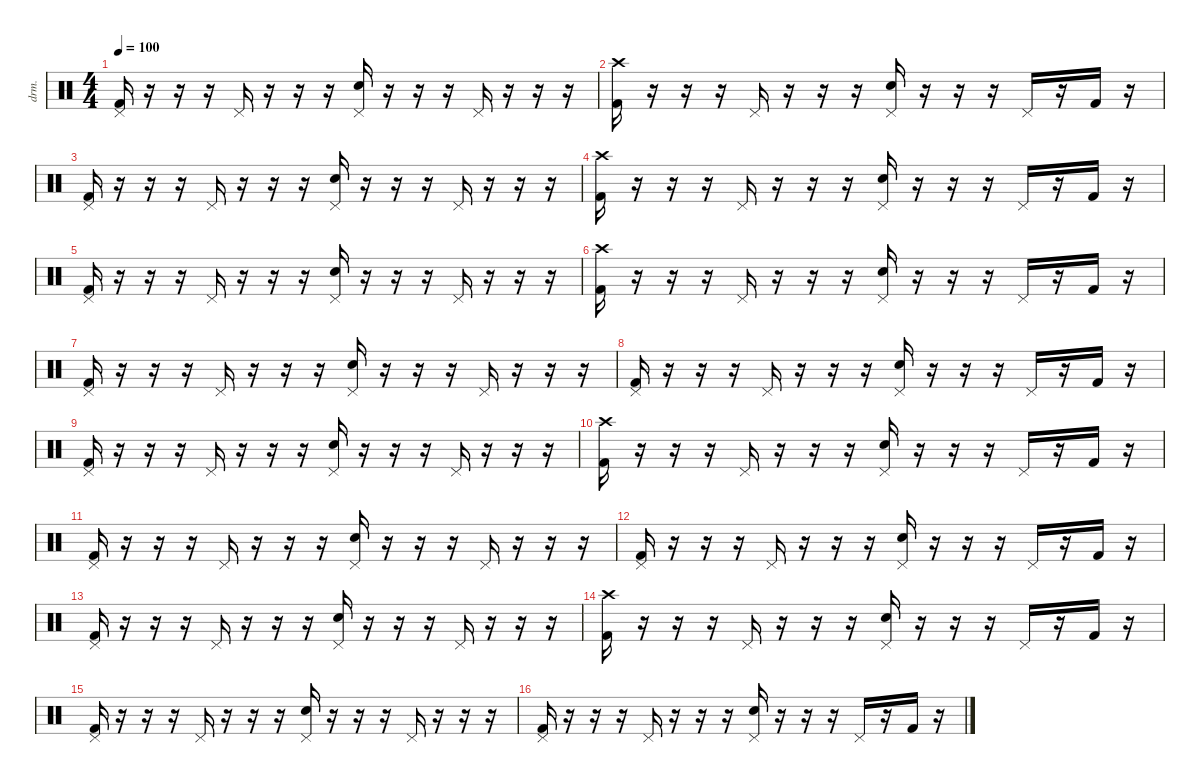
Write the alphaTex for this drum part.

\defaultSystemsLayout 4
\hideDynamics
\bracketExtendMode nobrackets
\otherSystemsTrackNameOrientation horizontal
\track ("Drums" "drm.") {instrument percussion}
\staff {score}
\articulation defaults
\ts (4 4)
\tempo 100
\clef neutral
\ks c
("Kick (hit) 2" "Pedal Hi-Hat (hit)").16{dy ff beam Up} r.16{beam Up} r.16{beam Up} r.16{beam Up} "Pedal Hi-Hat (hit)".16{beam Up} r.16{beam Up} r.16{beam Up} r.16{beam Up} ("Snare (hit) 2" "Pedal Hi-Hat (hit)").16{beam Up} r.16{beam Up} r.16{beam Up} r.16{beam Up} "Pedal Hi-Hat (hit)".16{beam Up} r.16{beam Up} r.16{beam Up} r.16{beam Up} |
("Kick (hit) 2" "Crash high (hit)").16{beam Down} r.16{beam Down} r.16{beam Down} r.16{beam Down} "Pedal Hi-Hat (hit)".16{beam Up} r.16{beam Up} r.16{beam Up} r.16{beam Up} ("Snare (hit) 2" "Pedal Hi-Hat (hit)").16{beam Up} r.16{beam Up} r.16{beam Up} r.16{beam Up} "Pedal Hi-Hat (hit)".16{beam Up} r.16{beam Up} "Kick (hit) 2".16{dy f beam Up} r.16{beam Up} |
("Kick (hit) 2" "Pedal Hi-Hat (hit)").16{dy ff beam Up} r.16{beam Up} r.16{beam Up} r.16{beam Up} "Pedal Hi-Hat (hit)".16{beam Up} r.16{beam Up} r.16{beam Up} r.16{beam Up} ("Snare (hit) 2" "Pedal Hi-Hat (hit)").16{beam Up} r.16{beam Up} r.16{beam Up} r.16{beam Up} "Pedal Hi-Hat (hit)".16{beam Up} r.16{beam Up} r.16{beam Up} r.16{beam Up} |
("Kick (hit) 2" "Crash high (hit)").16{beam Down} r.16{beam Down} r.16{beam Down} r.16{beam Down} "Pedal Hi-Hat (hit)".16{beam Up} r.16{beam Up} r.16{beam Up} r.16{beam Up} ("Snare (hit) 2" "Pedal Hi-Hat (hit)").16{beam Up} r.16{beam Up} r.16{beam Up} r.16{beam Up} "Pedal Hi-Hat (hit)".16{beam Up} r.16{beam Up} "Kick (hit) 2".16{dy f beam Up} r.16{beam Up} |
("Kick (hit) 2" "Pedal Hi-Hat (hit)").16{dy ff beam Up} r.16{beam Up} r.16{beam Up} r.16{beam Up} "Pedal Hi-Hat (hit)".16{beam Up} r.16{beam Up} r.16{beam Up} r.16{beam Up} ("Snare (hit) 2" "Pedal Hi-Hat (hit)").16{beam Up} r.16{beam Up} r.16{beam Up} r.16{beam Up} "Pedal Hi-Hat (hit)".16{beam Up} r.16{beam Up} r.16{beam Up} r.16{beam Up} |
("Kick (hit) 2" "Crash high (hit)").16{beam Down} r.16{beam Down} r.16{beam Down} r.16{beam Down} "Pedal Hi-Hat (hit)".16{beam Up} r.16{beam Up} r.16{beam Up} r.16{beam Up} ("Snare (hit) 2" "Pedal Hi-Hat (hit)").16{beam Up} r.16{beam Up} r.16{beam Up} r.16{beam Up} "Pedal Hi-Hat (hit)".16{beam Up} r.16{beam Up} "Kick (hit) 2".16{dy f beam Up} r.16{beam Up} |
("Kick (hit) 2" "Pedal Hi-Hat (hit)").16{dy ff beam Up} r.16{beam Up} r.16{beam Up} r.16{beam Up} "Pedal Hi-Hat (hit)".16{beam Up} r.16{beam Up} r.16{beam Up} r.16{beam Up} ("Snare (hit) 2" "Pedal Hi-Hat (hit)").16{beam Up} r.16{beam Up} r.16{beam Up} r.16{beam Up} "Pedal Hi-Hat (hit)".16{beam Up} r.16{beam Up} r.16{beam Up} r.16{beam Up} |
("Kick (hit) 2" "Pedal Hi-Hat (hit)").16{beam Up} r.16{beam Up} r.16{beam Up} r.16{beam Up} "Pedal Hi-Hat (hit)".16{beam Up} r.16{beam Up} r.16{beam Up} r.16{beam Up} ("Snare (hit) 2" "Pedal Hi-Hat (hit)").16{beam Up} r.16{beam Up} r.16{beam Up} r.16{beam Up} "Pedal Hi-Hat (hit)".16{beam Up} r.16{beam Up} "Kick (hit) 2".16{dy f beam Up} r.16{beam Up} |
("Kick (hit) 2" "Pedal Hi-Hat (hit)").16{dy ff beam Up} r.16{beam Up} r.16{beam Up} r.16{beam Up} "Pedal Hi-Hat (hit)".16{beam Up} r.16{beam Up} r.16{beam Up} r.16{beam Up} ("Snare (hit) 2" "Pedal Hi-Hat (hit)").16{beam Up} r.16{beam Up} r.16{beam Up} r.16{beam Up} "Pedal Hi-Hat (hit)".16{beam Up} r.16{beam Up} r.16{beam Up} r.16{beam Up} |
("Kick (hit) 2" "Crash high (hit)").16{beam Down} r.16{beam Down} r.16{beam Down} r.16{beam Down} "Pedal Hi-Hat (hit)".16{beam Up} r.16{beam Up} r.16{beam Up} r.16{beam Up} ("Snare (hit) 2" "Pedal Hi-Hat (hit)").16{beam Up} r.16{beam Up} r.16{beam Up} r.16{beam Up} "Pedal Hi-Hat (hit)".16{beam Up} r.16{beam Up} "Kick (hit) 2".16{dy f beam Up} r.16{beam Up} |
("Kick (hit) 2" "Pedal Hi-Hat (hit)").16{dy ff beam Up} r.16{beam Up} r.16{beam Up} r.16{beam Up} "Pedal Hi-Hat (hit)".16{beam Up} r.16{beam Up} r.16{beam Up} r.16{beam Up} ("Snare (hit) 2" "Pedal Hi-Hat (hit)").16{beam Up} r.16{beam Up} r.16{beam Up} r.16{beam Up} "Pedal Hi-Hat (hit)".16{beam Up} r.16{beam Up} r.16{beam Up} r.16{beam Up} |
("Kick (hit) 2" "Pedal Hi-Hat (hit)").16{beam Up} r.16{beam Up} r.16{beam Up} r.16{beam Up} "Pedal Hi-Hat (hit)".16{beam Up} r.16{beam Up} r.16{beam Up} r.16{beam Up} ("Snare (hit) 2" "Pedal Hi-Hat (hit)").16{beam Up} r.16{beam Up} r.16{beam Up} r.16{beam Up} "Pedal Hi-Hat (hit)".16{beam Up} r.16{beam Up} "Kick (hit) 2".16{dy f beam Up} r.16{beam Up} |
("Kick (hit) 2" "Pedal Hi-Hat (hit)").16{dy ff beam Up} r.16{beam Up} r.16{beam Up} r.16{beam Up} "Pedal Hi-Hat (hit)".16{beam Up} r.16{beam Up} r.16{beam Up} r.16{beam Up} ("Snare (hit) 2" "Pedal Hi-Hat (hit)").16{beam Up} r.16{beam Up} r.16{beam Up} r.16{beam Up} "Pedal Hi-Hat (hit)".16{beam Up} r.16{beam Up} r.16{beam Up} r.16{beam Up} |
("Kick (hit) 2" "Crash high (hit)").16{beam Down} r.16{beam Down} r.16{beam Down} r.16{beam Down} "Pedal Hi-Hat (hit)".16{beam Up} r.16{beam Up} r.16{beam Up} r.16{beam Up} ("Snare (hit) 2" "Pedal Hi-Hat (hit)").16{beam Up} r.16{beam Up} r.16{beam Up} r.16{beam Up} "Pedal Hi-Hat (hit)".16{beam Up} r.16{beam Up} "Kick (hit) 2".16{dy f beam Up} r.16{beam Up} |
("Kick (hit) 2" "Pedal Hi-Hat (hit)").16{dy ff beam Up} r.16{beam Up} r.16{beam Up} r.16{beam Up} "Pedal Hi-Hat (hit)".16{beam Up} r.16{beam Up} r.16{beam Up} r.16{beam Up} ("Snare (hit) 2" "Pedal Hi-Hat (hit)").16{beam Up} r.16{beam Up} r.16{beam Up} r.16{beam Up} "Pedal Hi-Hat (hit)".16{beam Up} r.16{beam Up} r.16{beam Up} r.16{beam Up} |
("Kick (hit) 2" "Pedal Hi-Hat (hit)").16{beam Up} r.16{beam Up} r.16{beam Up} r.16{beam Up} "Pedal Hi-Hat (hit)".16{beam Up} r.16{beam Up} r.16{beam Up} r.16{beam Up} ("Snare (hit) 2" "Pedal Hi-Hat (hit)").16{beam Up} r.16{beam Up} r.16{beam Up} r.16{beam Up} "Pedal Hi-Hat (hit)".16{beam Up} r.16{beam Up} "Kick (hit) 2".16{dy f beam Up} r.16{beam Up}
